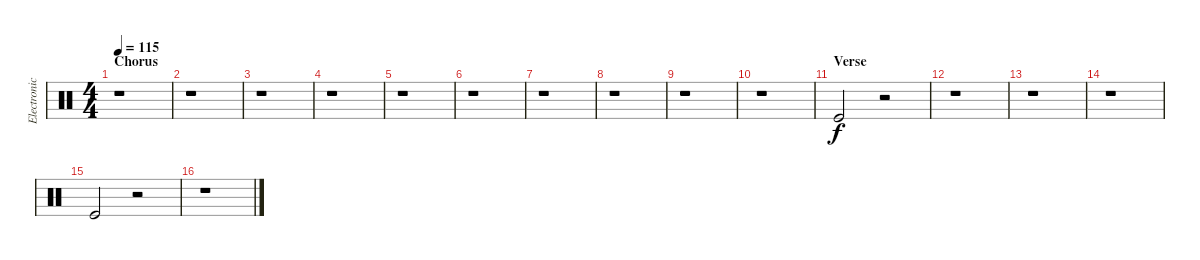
\track ("Electronic Drums" "Electronic") {instrument percussion}
\staff {score}
\articulation defaults
\ts (4 4)
\section ("" "Chorus")
\tempo 115
\clef neutral
\ks c
r.1{dy f} |
r.1 |
r.1 |
r.1 |
r.1 |
r.1 |
r.1 |
r.1 |
r.1 |
r.1 |
\section ("" "Verse")
"Kick (hit)".2 r.2 |
r.1 |
r.1 |
r.1 |
"Kick (hit)".2 r.2 |
r.1
